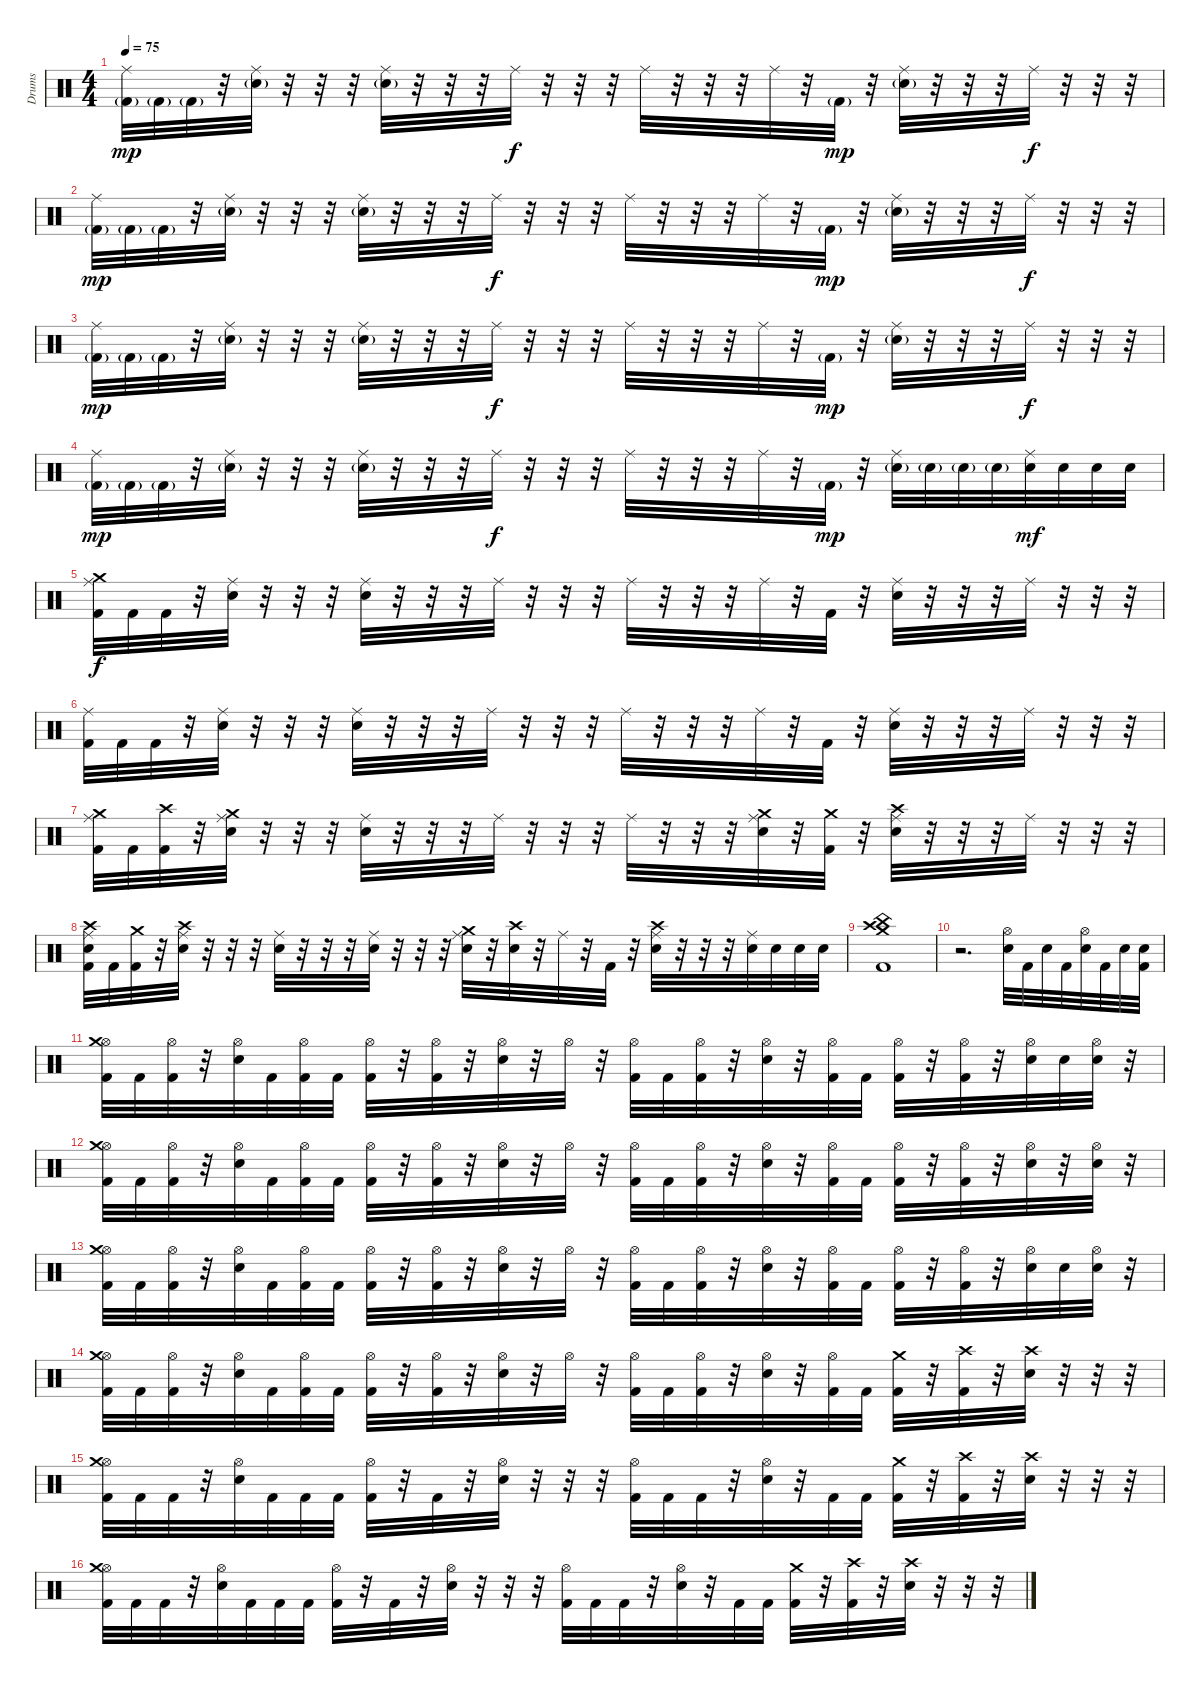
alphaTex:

\track ("Drums" "Drums") {instrument percussion}
\staff {score}
\articulation defaults
\ts (4 4)
\tempo 75
\clef neutral
\ks c
("Ride (middle)" "Kick (hit) 2"{g}).32{dy mp} "Kick (hit) 2"{g}.32 "Kick (hit) 2"{g}.32 r.32 ("Ride (middle)" "Electric Snare (hit)"{g}).32 r.32 r.32 r.32 ("Ride (middle)" "Electric Snare (hit)"{g}).32 r.32 r.32 r.32 "Ride (middle)".32{dy f} r.32 r.32 r.32 "Ride (middle)".32 r.32 r.32 r.32 "Ride (middle)".32 r.32 "Kick (hit) 2"{g}.32{dy mp} r.32 ("Ride (middle)" "Electric Snare (hit)"{g}).32 r.32 r.32 r.32 "Ride (middle)".32{dy f} r.32 r.32 r.32 |
("Ride (middle)" "Kick (hit) 2"{g}).32{dy mp} "Kick (hit) 2"{g}.32 "Kick (hit) 2"{g}.32 r.32 ("Ride (middle)" "Electric Snare (hit)"{g}).32 r.32 r.32 r.32 ("Ride (middle)" "Electric Snare (hit)"{g}).32 r.32 r.32 r.32 "Ride (middle)".32{dy f} r.32 r.32 r.32 "Ride (middle)".32 r.32 r.32 r.32 "Ride (middle)".32 r.32 "Kick (hit) 2"{g}.32{dy mp} r.32 ("Ride (middle)" "Electric Snare (hit)"{g}).32 r.32 r.32 r.32 "Ride (middle)".32{dy f} r.32 r.32 r.32 |
("Ride (middle)" "Kick (hit) 2"{g}).32{dy mp} "Kick (hit) 2"{g}.32 "Kick (hit) 2"{g}.32 r.32 ("Ride (middle)" "Electric Snare (hit)"{g}).32 r.32 r.32 r.32 ("Ride (middle)" "Electric Snare (hit)"{g}).32 r.32 r.32 r.32 "Ride (middle)".32{dy f} r.32 r.32 r.32 "Ride (middle)".32 r.32 r.32 r.32 "Ride (middle)".32 r.32 "Kick (hit) 2"{g}.32{dy mp} r.32 ("Ride (middle)" "Electric Snare (hit)"{g}).32 r.32 r.32 r.32 "Ride (middle)".32{dy f} r.32 r.32 r.32 |
("Ride (middle)" "Kick (hit) 2"{g}).32{dy mp} "Kick (hit) 2"{g}.32 "Kick (hit) 2"{g}.32 r.32 ("Ride (middle)" "Electric Snare (hit)"{g}).32 r.32 r.32 r.32 ("Ride (middle)" "Electric Snare (hit)"{g}).32 r.32 r.32 r.32 "Ride (middle)".32{dy f} r.32 r.32 r.32 "Ride (middle)".32 r.32 r.32 r.32 "Ride (middle)".32 r.32 "Kick (hit) 2"{g}.32{dy mp} r.32 ("Ride (middle)" "Electric Snare (hit)"{g}).32 "Electric Snare (hit)"{g}.32 "Electric Snare (hit)"{g}.32 "Electric Snare (hit)"{g}.32 ("Ride (middle)" "Electric Snare (hit)").32{dy mf} "Electric Snare (hit)".32 "Electric Snare (hit)".32 "Electric Snare (hit)".32 |
("Ride (middle)" "Crash medium (hit)" "Kick (hit) 2").32{dy f} "Kick (hit) 2".32 "Kick (hit) 2".32 r.32 ("Ride (middle)" "Electric Snare (hit)").32 r.32 r.32 r.32 ("Ride (middle)" "Electric Snare (hit)").32 r.32 r.32 r.32 "Ride (middle)".32 r.32 r.32 r.32 "Ride (middle)".32 r.32 r.32 r.32 "Ride (middle)".32 r.32 "Kick (hit) 2".32 r.32 ("Ride (middle)" "Electric Snare (hit)").32 r.32 r.32 r.32 "Ride (middle)".32 r.32 r.32 r.32 |
("Ride (middle)" "Kick (hit) 2").32 "Kick (hit) 2".32 "Kick (hit) 2".32 r.32 ("Ride (middle)" "Electric Snare (hit)").32 r.32 r.32 r.32 ("Ride (middle)" "Electric Snare (hit)").32 r.32 r.32 r.32 "Ride (middle)".32 r.32 r.32 r.32 "Ride (middle)".32 r.32 r.32 r.32 "Ride (middle)".32 r.32 "Kick (hit) 2".32 r.32 ("Ride (middle)" "Electric Snare (hit)").32 r.32 r.32 r.32 "Ride (middle)".32 r.32 r.32 r.32 |
("Ride (middle)" "Crash medium (hit)" "Kick (hit) 2").32 "Kick (hit) 2".32 ("Crash high (hit)" "Kick (hit) 2").32 r.32 ("Ride (middle)" "Crash medium (hit)" "Electric Snare (hit)").32 r.32 r.32 r.32 ("Ride (middle)" "Electric Snare (hit)").32 r.32 r.32 r.32 "Ride (middle)".32 r.32 r.32 r.32 "Ride (middle)".32 r.32 r.32 r.32 ("Ride (middle)" "Crash medium (hit)" "Electric Snare (hit)").32 r.32 ("Crash medium (hit)" "Kick (hit) 2").32 r.32 ("Ride (middle)" "Crash high (hit)" "Electric Snare (hit)").32 r.32 r.32 r.32 "Ride (middle)".32 r.32 r.32 r.32 |
("Ride (middle)" "Crash high (hit)" "Electric Snare (hit)" "Kick (hit) 2").32 "Kick (hit) 2".32 ("Crash medium (hit)" "Kick (hit) 2").32 r.32 ("Ride (middle)" "Crash high (hit)" "Electric Snare (hit)").32 r.32 r.32 r.32 ("Ride (middle)" "Electric Snare (hit)").32 r.32 r.32 r.32 ("Ride (middle)" "Electric Snare (hit)").32 r.32 r.32 r.32 ("Ride (middle)" "Crash medium (hit)" "Electric Snare (hit)").32 r.32 ("Crash high (hit)" "Electric Snare (hit)").32 r.32 "Ride (middle)".32 r.32 "Kick (hit) 2".32 r.32 ("Ride (middle)" "Crash high (hit)" "Electric Snare (hit)").32 r.32 r.32 r.32 ("Ride (middle)" "Electric Snare (hit)").32 "Electric Snare (hit)".32 "Electric Snare (hit)".32 "Electric Snare (hit)".32 |
("China (hit)" "Crash high (hit)" "Crash medium (hit)" "Kick (hit) 2").1 |
r.2{d} ("Hi-Hat (open)" "Electric Snare (hit)").32 "Kick (hit) 2".32 "Electric Snare (hit)".32 "Kick (hit) 2".32 ("Hi-Hat (open)" "Electric Snare (hit)").32 "Kick (hit) 2".32 "Electric Snare (hit)".32 ("Electric Snare (hit)" "Kick (hit) 2").32 |
("Hi-Hat (open)" "Crash medium (hit)" "Kick (hit) 2").32 "Kick (hit) 2".32 ("Hi-Hat (open)" "Kick (hit) 2").32 r.32 ("Hi-Hat (open)" "Electric Snare (hit)").32 "Kick (hit) 2".32 ("Hi-Hat (open)" "Kick (hit) 2").32 "Kick (hit) 2".32 ("Hi-Hat (open)" "Kick (hit) 2").32 r.32 ("Hi-Hat (open)" "Kick (hit) 2").32 r.32 ("Hi-Hat (open)" "Electric Snare (hit)").32 r.32 "Hi-Hat (open)".32 r.32 ("Hi-Hat (open)" "Kick (hit) 2").32 "Kick (hit) 2".32 ("Hi-Hat (open)" "Kick (hit) 2").32 r.32 ("Hi-Hat (open)" "Electric Snare (hit)").32 r.32 ("Hi-Hat (open)" "Kick (hit) 2").32 "Kick (hit) 2".32 ("Hi-Hat (open)" "Kick (hit) 2").32 r.32 ("Hi-Hat (open)" "Kick (hit) 2").32 r.32 ("Hi-Hat (open)" "Electric Snare (hit)").32 "Electric Snare (hit)".32 ("Hi-Hat (open)" "Electric Snare (hit)").32 r.32 |
("Hi-Hat (open)" "Crash medium (hit)" "Kick (hit) 2").32 "Kick (hit) 2".32 ("Hi-Hat (open)" "Kick (hit) 2").32 r.32 ("Hi-Hat (open)" "Electric Snare (hit)").32 "Kick (hit) 2".32 ("Hi-Hat (open)" "Kick (hit) 2").32 "Kick (hit) 2".32 ("Hi-Hat (open)" "Kick (hit) 2").32 r.32 ("Hi-Hat (open)" "Kick (hit) 2").32 r.32 ("Hi-Hat (open)" "Electric Snare (hit)").32 r.32 "Hi-Hat (open)".32 r.32 ("Hi-Hat (open)" "Kick (hit) 2").32 "Kick (hit) 2".32 ("Hi-Hat (open)" "Kick (hit) 2").32 r.32 ("Hi-Hat (open)" "Electric Snare (hit)").32 r.32 ("Hi-Hat (open)" "Kick (hit) 2").32 "Kick (hit) 2".32 ("Hi-Hat (open)" "Kick (hit) 2").32 r.32 ("Hi-Hat (open)" "Kick (hit) 2").32 r.32 ("Hi-Hat (open)" "Electric Snare (hit)").32 r.32 ("Hi-Hat (open)" "Electric Snare (hit)").32 r.32 |
("Hi-Hat (open)" "Crash medium (hit)" "Kick (hit) 2").32 "Kick (hit) 2".32 ("Hi-Hat (open)" "Kick (hit) 2").32 r.32 ("Hi-Hat (open)" "Electric Snare (hit)").32 "Kick (hit) 2".32 ("Hi-Hat (open)" "Kick (hit) 2").32 "Kick (hit) 2".32 ("Hi-Hat (open)" "Kick (hit) 2").32 r.32 ("Hi-Hat (open)" "Kick (hit) 2").32 r.32 ("Hi-Hat (open)" "Electric Snare (hit)").32 r.32 "Hi-Hat (open)".32 r.32 ("Hi-Hat (open)" "Kick (hit) 2").32 "Kick (hit) 2".32 ("Hi-Hat (open)" "Kick (hit) 2").32 r.32 ("Hi-Hat (open)" "Electric Snare (hit)").32 r.32 ("Hi-Hat (open)" "Kick (hit) 2").32 "Kick (hit) 2".32 ("Hi-Hat (open)" "Kick (hit) 2").32 r.32 ("Hi-Hat (open)" "Kick (hit) 2").32 r.32 ("Hi-Hat (open)" "Electric Snare (hit)").32 "Electric Snare (hit)".32 ("Hi-Hat (open)" "Electric Snare (hit)").32 r.32 |
("Hi-Hat (open)" "Crash medium (hit)" "Kick (hit) 2").32 "Kick (hit) 2".32 ("Hi-Hat (open)" "Kick (hit) 2").32 r.32 ("Hi-Hat (open)" "Electric Snare (hit)").32 "Kick (hit) 2".32 ("Hi-Hat (open)" "Kick (hit) 2").32 "Kick (hit) 2".32 ("Hi-Hat (open)" "Kick (hit) 2").32 r.32 ("Hi-Hat (open)" "Kick (hit) 2").32 r.32 ("Hi-Hat (open)" "Electric Snare (hit)").32 r.32 "Hi-Hat (open)".32 r.32 ("Hi-Hat (open)" "Kick (hit) 2").32 "Kick (hit) 2".32 ("Hi-Hat (open)" "Kick (hit) 2").32 r.32 ("Hi-Hat (open)" "Electric Snare (hit)").32 r.32 ("Hi-Hat (open)" "Kick (hit) 2").32 "Kick (hit) 2".32 ("Crash medium (hit)" "Kick (hit) 2").32 r.32 ("Crash high (hit)" "Kick (hit) 2").32 r.32 ("Crash high (hit)" "Electric Snare (hit)").32 r.32 r.32 r.32 |
("Hi-Hat (open)" "Crash medium (hit)" "Kick (hit) 2").32 "Kick (hit) 2".32 "Kick (hit) 2".32 r.32 ("Hi-Hat (open)" "Electric Snare (hit)").32 "Kick (hit) 2".32 "Kick (hit) 2".32 "Kick (hit) 2".32 ("Hi-Hat (open)" "Kick (hit) 2").32 r.32 "Kick (hit) 2".32 r.32 ("Hi-Hat (open)" "Electric Snare (hit)").32 r.32 r.32 r.32 ("Hi-Hat (open)" "Kick (hit) 2").32 "Kick (hit) 2".32 "Kick (hit) 2".32 r.32 ("Hi-Hat (open)" "Electric Snare (hit)").32 r.32 "Kick (hit) 2".32 "Kick (hit) 2".32 ("Crash medium (hit)" "Kick (hit) 2").32 r.32 ("Crash high (hit)" "Kick (hit) 2").32 r.32 ("Crash high (hit)" "Electric Snare (hit)").32 r.32 r.32 r.32 |
("Hi-Hat (open)" "Crash medium (hit)" "Kick (hit) 2").32 "Kick (hit) 2".32 "Kick (hit) 2".32 r.32 ("Hi-Hat (open)" "Electric Snare (hit)").32 "Kick (hit) 2".32 "Kick (hit) 2".32 "Kick (hit) 2".32 ("Hi-Hat (open)" "Kick (hit) 2").32 r.32 "Kick (hit) 2".32 r.32 ("Hi-Hat (open)" "Electric Snare (hit)").32 r.32 r.32 r.32 ("Hi-Hat (open)" "Kick (hit) 2").32 "Kick (hit) 2".32 "Kick (hit) 2".32 r.32 ("Hi-Hat (open)" "Electric Snare (hit)").32 r.32 "Kick (hit) 2".32 "Kick (hit) 2".32 ("Crash medium (hit)" "Kick (hit) 2").32 r.32 ("Crash high (hit)" "Kick (hit) 2").32 r.32 ("Crash high (hit)" "Electric Snare (hit)").32 r.32 r.32 r.32
